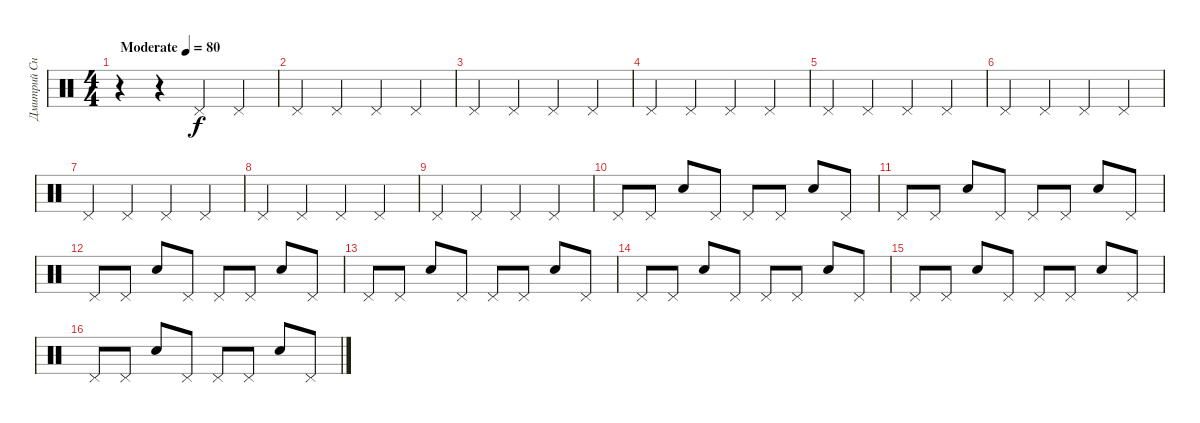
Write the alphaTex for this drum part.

\track ("Дмитрий Снэйк" "Дмитрий Сн") {instrument percussion}
\staff {score}
\articulation defaults
\ts (4 4)
\tempo (80 "Moderate")
\clef neutral
\ks c
r.4{dy f} r.4 "Pedal Hi-Hat (hit)".4 "Pedal Hi-Hat (hit)".4 |
"Pedal Hi-Hat (hit)".4 "Pedal Hi-Hat (hit)".4 "Pedal Hi-Hat (hit)".4 "Pedal Hi-Hat (hit)".4 |
"Pedal Hi-Hat (hit)".4 "Pedal Hi-Hat (hit)".4 "Pedal Hi-Hat (hit)".4 "Pedal Hi-Hat (hit)".4 |
"Pedal Hi-Hat (hit)".4 "Pedal Hi-Hat (hit)".4 "Pedal Hi-Hat (hit)".4 "Pedal Hi-Hat (hit)".4 |
"Pedal Hi-Hat (hit)".4 "Pedal Hi-Hat (hit)".4 "Pedal Hi-Hat (hit)".4 "Pedal Hi-Hat (hit)".4 |
"Pedal Hi-Hat (hit)".4 "Pedal Hi-Hat (hit)".4 "Pedal Hi-Hat (hit)".4 "Pedal Hi-Hat (hit)".4 |
"Pedal Hi-Hat (hit)".4 "Pedal Hi-Hat (hit)".4 "Pedal Hi-Hat (hit)".4 "Pedal Hi-Hat (hit)".4 |
"Pedal Hi-Hat (hit)".4 "Pedal Hi-Hat (hit)".4 "Pedal Hi-Hat (hit)".4 "Pedal Hi-Hat (hit)".4 |
"Pedal Hi-Hat (hit)".4 "Pedal Hi-Hat (hit)".4 "Pedal Hi-Hat (hit)".4 "Pedal Hi-Hat (hit)".4 |
"Pedal Hi-Hat (hit)".8 "Pedal Hi-Hat (hit)".8 "Snare (hit) 2".8 "Pedal Hi-Hat (hit)".8 "Pedal Hi-Hat (hit)".8 "Pedal Hi-Hat (hit)".8 "Snare (hit) 2".8 "Pedal Hi-Hat (hit)".8 |
"Pedal Hi-Hat (hit)".8 "Pedal Hi-Hat (hit)".8 "Snare (hit) 2".8 "Pedal Hi-Hat (hit)".8 "Pedal Hi-Hat (hit)".8 "Pedal Hi-Hat (hit)".8 "Snare (hit) 2".8 "Pedal Hi-Hat (hit)".8 |
"Pedal Hi-Hat (hit)".8 "Pedal Hi-Hat (hit)".8 "Snare (hit) 2".8 "Pedal Hi-Hat (hit)".8 "Pedal Hi-Hat (hit)".8 "Pedal Hi-Hat (hit)".8 "Snare (hit) 2".8 "Pedal Hi-Hat (hit)".8 |
"Pedal Hi-Hat (hit)".8 "Pedal Hi-Hat (hit)".8 "Snare (hit) 2".8 "Pedal Hi-Hat (hit)".8 "Pedal Hi-Hat (hit)".8 "Pedal Hi-Hat (hit)".8 "Snare (hit) 2".8 "Pedal Hi-Hat (hit)".8 |
"Pedal Hi-Hat (hit)".8 "Pedal Hi-Hat (hit)".8 "Snare (hit) 2".8 "Pedal Hi-Hat (hit)".8 "Pedal Hi-Hat (hit)".8 "Pedal Hi-Hat (hit)".8 "Snare (hit) 2".8 "Pedal Hi-Hat (hit)".8 |
"Pedal Hi-Hat (hit)".8 "Pedal Hi-Hat (hit)".8 "Snare (hit) 2".8 "Pedal Hi-Hat (hit)".8 "Pedal Hi-Hat (hit)".8 "Pedal Hi-Hat (hit)".8 "Snare (hit) 2".8 "Pedal Hi-Hat (hit)".8 |
"Pedal Hi-Hat (hit)".8 "Pedal Hi-Hat (hit)".8 "Snare (hit) 2".8 "Pedal Hi-Hat (hit)".8 "Pedal Hi-Hat (hit)".8 "Pedal Hi-Hat (hit)".8 "Snare (hit) 2".8 "Pedal Hi-Hat (hit)".8
